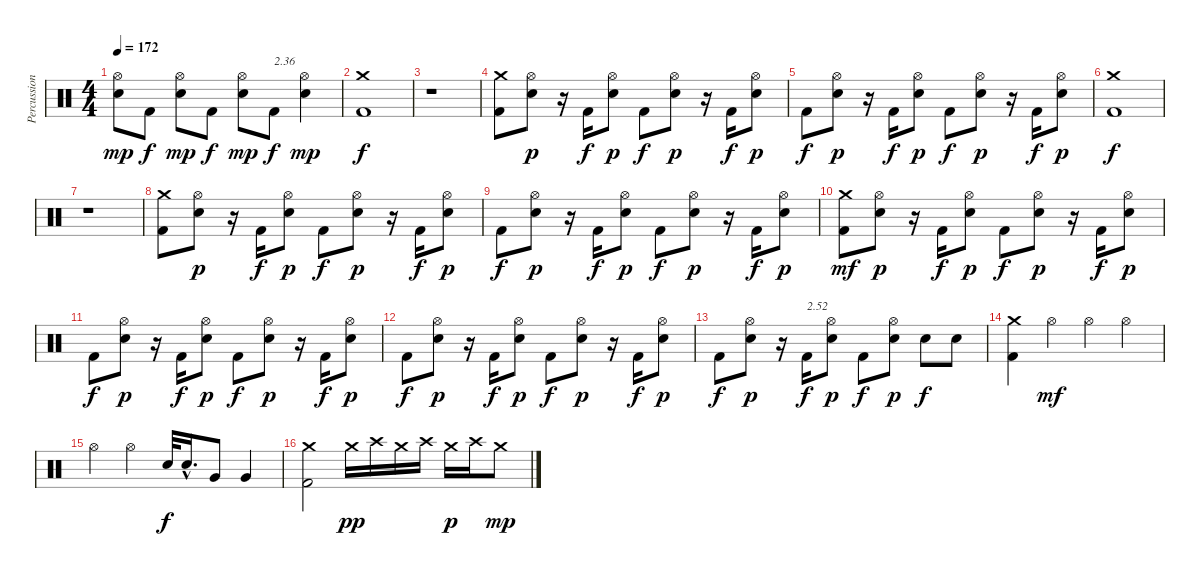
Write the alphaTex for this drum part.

\track ("Percussions" "Percussion") {instrument percussion}
\staff {score}
\articulation defaults
\ts (4 4)
\tempo 172
\clef neutral
\ks c
("Electric Snare (hit)" "Hi-Hat (open)").8{dy mp} "Kick (hit) 2".8{dy f} ("Electric Snare (hit)" "Hi-Hat (open)").8{dy mp} "Kick (hit) 2".8{dy f} ("Electric Snare (hit)" "Hi-Hat (open)").8{dy mp} "Kick (hit) 2".8{txt "2.36" dy f} ("Electric Snare (hit)" "Hi-Hat (open)").4{dy mp} |
("Kick (hit) 2" "Crash medium (hit)").1{dy f} |
r.1 |
("Kick (hit) 2" "Crash medium (hit)").8 ("Electric Snare (hit)" "Hi-Hat (open)").8{dy p} r.16 "Kick (hit) 2".16{dy f} ("Electric Snare (hit)" "Hi-Hat (open)").8{dy p} "Kick (hit) 2".8{dy f} ("Electric Snare (hit)" "Hi-Hat (open)").8{dy p} r.16 "Kick (hit) 2".16{dy f} ("Electric Snare (hit)" "Hi-Hat (open)").8{dy p} |
"Kick (hit) 2".8{dy f} ("Electric Snare (hit)" "Hi-Hat (open)").8{dy p} r.16 "Kick (hit) 2".16{dy f} ("Electric Snare (hit)" "Hi-Hat (open)").8{dy p} "Kick (hit) 2".8{dy f} ("Electric Snare (hit)" "Hi-Hat (open)").8{dy p} r.16 "Kick (hit) 2".16{dy f} ("Electric Snare (hit)" "Hi-Hat (open)").8{dy p} |
("Kick (hit) 2" "Crash medium (hit)").1{dy f} |
r.1 |
("Kick (hit) 2" "Crash medium (hit)").8 ("Electric Snare (hit)" "Hi-Hat (open)").8{dy p} r.16 "Kick (hit) 2".16{dy f} ("Electric Snare (hit)" "Hi-Hat (open)").8{dy p} "Kick (hit) 2".8{dy f} ("Electric Snare (hit)" "Hi-Hat (open)").8{dy p} r.16 "Kick (hit) 2".16{dy f} ("Electric Snare (hit)" "Hi-Hat (open)").8{dy p} |
"Kick (hit) 2".8{dy f} ("Electric Snare (hit)" "Hi-Hat (open)").8{dy p} r.16 "Kick (hit) 2".16{dy f} ("Electric Snare (hit)" "Hi-Hat (open)").8{dy p} "Kick (hit) 2".8{dy f} ("Electric Snare (hit)" "Hi-Hat (open)").8{dy p} r.16 "Kick (hit) 2".16{dy f} ("Electric Snare (hit)" "Hi-Hat (open)").8{dy p} |
("Kick (hit) 2" "Crash medium (hit)").8{dy mf} ("Electric Snare (hit)" "Hi-Hat (open)").8{dy p} r.16 "Kick (hit) 2".16{dy f} ("Electric Snare (hit)" "Hi-Hat (open)").8{dy p} "Kick (hit) 2".8{dy f} ("Electric Snare (hit)" "Hi-Hat (open)").8{dy p} r.16 "Kick (hit) 2".16{dy f} ("Electric Snare (hit)" "Hi-Hat (open)").8{dy p} |
"Kick (hit) 2".8{dy f} ("Electric Snare (hit)" "Hi-Hat (open)").8{dy p} r.16 "Kick (hit) 2".16{dy f} ("Electric Snare (hit)" "Hi-Hat (open)").8{dy p} "Kick (hit) 2".8{dy f} ("Electric Snare (hit)" "Hi-Hat (open)").8{dy p} r.16 "Kick (hit) 2".16{dy f} ("Electric Snare (hit)" "Hi-Hat (open)").8{dy p} |
"Kick (hit) 2".8{dy f} ("Electric Snare (hit)" "Hi-Hat (open)").8{dy p} r.16 "Kick (hit) 2".16{dy f} ("Electric Snare (hit)" "Hi-Hat (open)").8{dy p} "Kick (hit) 2".8{dy f} ("Electric Snare (hit)" "Hi-Hat (open)").8{dy p} r.16 "Kick (hit) 2".16{dy f} ("Electric Snare (hit)" "Hi-Hat (open)").8{dy p} |
"Kick (hit) 2".8{dy f} ("Electric Snare (hit)" "Hi-Hat (open)").8{dy p} r.16 "Kick (hit) 2".16{txt "2.52" dy f} ("Electric Snare (hit)" "Hi-Hat (open)").8{dy p} "Kick (hit) 2".8{dy f} ("Electric Snare (hit)" "Hi-Hat (open)").8{dy p} "Electric Snare (hit)".8{dy f} "Electric Snare (hit)".8 |
("Kick (hit) 2" "Crash medium (hit)").4 "Hi-Hat (open)".4{dy mf} "Hi-Hat (open)".4 "Hi-Hat (open)".4 |
"Hi-Hat (open)".4 "Hi-Hat (open)".4 "Electric Snare (hit)".32{dy f} "Electric Snare (hit)"{hac}.16{d} "Very Low Tom (hit)".8 "Very Low Tom (hit)".4 |
("Kick (hit) 2" "Crash medium (hit)").2 "Crash medium (hit)".16{dy pp} "Crash high (hit)".16 "Crash medium (hit)".16 "Crash high (hit)".16 "Crash medium (hit)".16{dy p} "Crash high (hit)".16 "Crash medium (hit)".8{dy mp}
